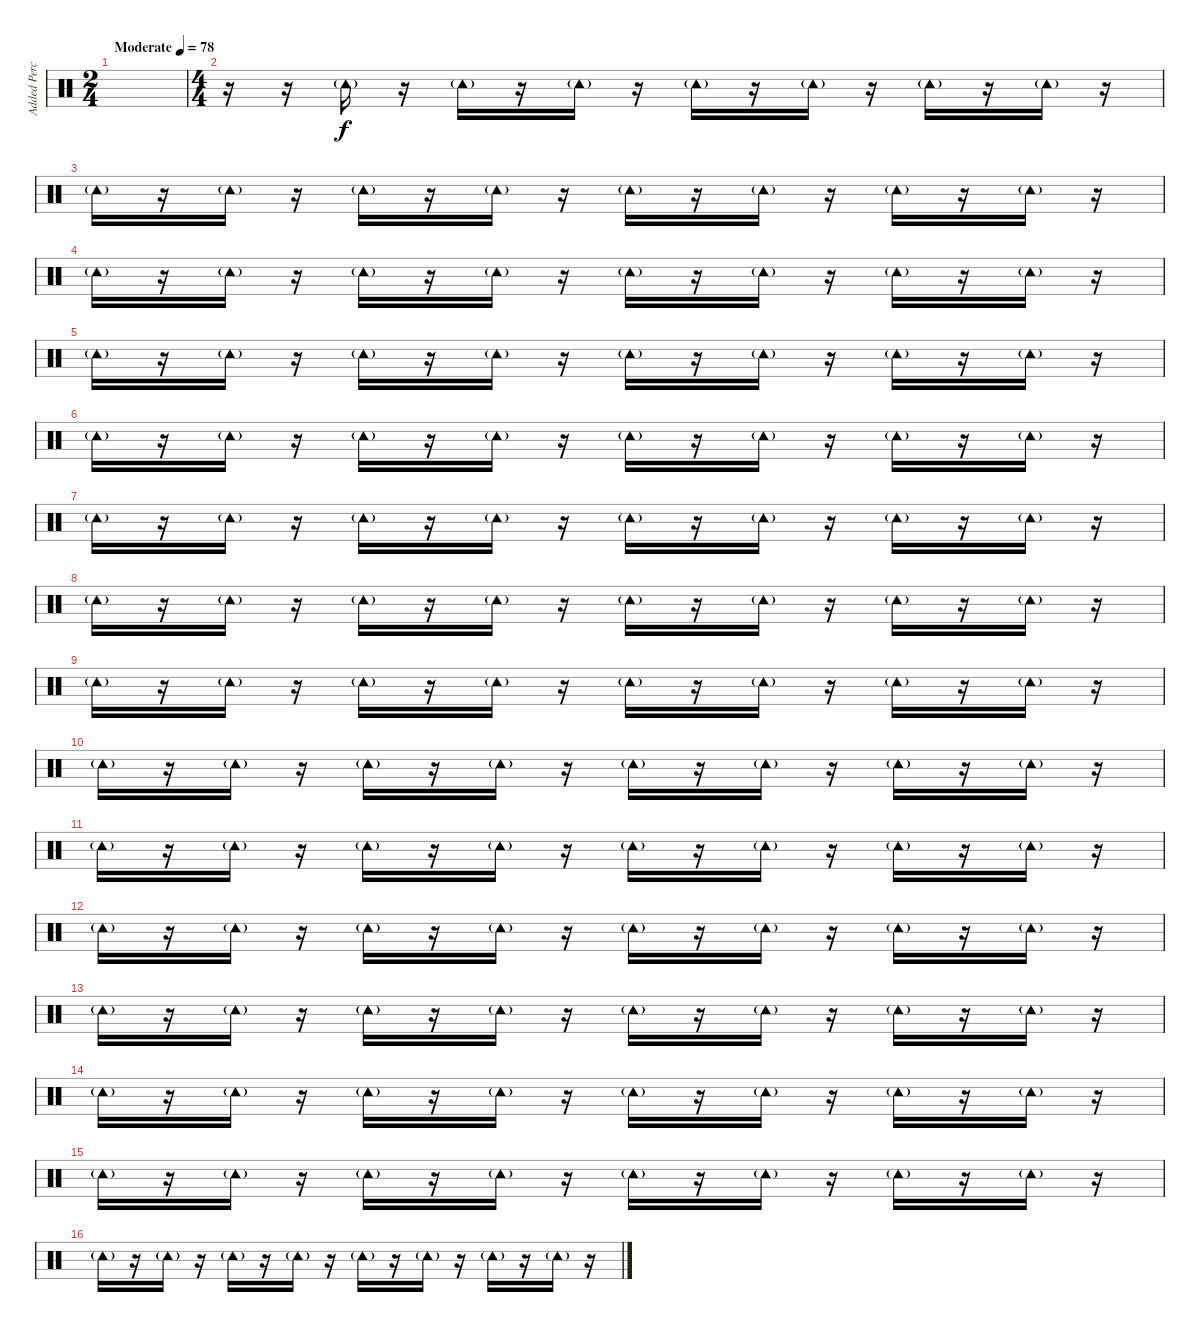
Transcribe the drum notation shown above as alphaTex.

\track ("Added Percussion" "Added Perc") {instrument percussion}
\staff {score}
\articulation defaults
\ts (2 4)
\tempo (78 "Moderate")
\clef neutral
\ks c
|
\ts (4 4)
r.16 r.16 "Tambourine (hit)"{g}.16 r.16 "Tambourine (hit)"{g}.16 r.16 "Tambourine (hit)"{g}.16 r.16 "Tambourine (hit)"{g}.16 r.16 "Tambourine (hit)"{g}.16 r.16 "Tambourine (hit)"{g}.16 r.16 "Tambourine (hit)"{g}.16 r.16 |
"Tambourine (hit)"{g}.16 r.16 "Tambourine (hit)"{g}.16 r.16 "Tambourine (hit)"{g}.16 r.16 "Tambourine (hit)"{g}.16 r.16 "Tambourine (hit)"{g}.16 r.16 "Tambourine (hit)"{g}.16 r.16 "Tambourine (hit)"{g}.16 r.16 "Tambourine (hit)"{g}.16 r.16 |
"Tambourine (hit)"{g}.16 r.16 "Tambourine (hit)"{g}.16 r.16 "Tambourine (hit)"{g}.16 r.16 "Tambourine (hit)"{g}.16 r.16 "Tambourine (hit)"{g}.16 r.16 "Tambourine (hit)"{g}.16 r.16 "Tambourine (hit)"{g}.16 r.16 "Tambourine (hit)"{g}.16 r.16 |
"Tambourine (hit)"{g}.16 r.16 "Tambourine (hit)"{g}.16 r.16 "Tambourine (hit)"{g}.16 r.16 "Tambourine (hit)"{g}.16 r.16 "Tambourine (hit)"{g}.16 r.16 "Tambourine (hit)"{g}.16 r.16 "Tambourine (hit)"{g}.16 r.16 "Tambourine (hit)"{g}.16 r.16 |
"Tambourine (hit)"{g}.16 r.16 "Tambourine (hit)"{g}.16 r.16 "Tambourine (hit)"{g}.16 r.16 "Tambourine (hit)"{g}.16 r.16 "Tambourine (hit)"{g}.16 r.16 "Tambourine (hit)"{g}.16 r.16 "Tambourine (hit)"{g}.16 r.16 "Tambourine (hit)"{g}.16 r.16 |
"Tambourine (hit)"{g}.16 r.16 "Tambourine (hit)"{g}.16 r.16 "Tambourine (hit)"{g}.16 r.16 "Tambourine (hit)"{g}.16 r.16 "Tambourine (hit)"{g}.16 r.16 "Tambourine (hit)"{g}.16 r.16 "Tambourine (hit)"{g}.16 r.16 "Tambourine (hit)"{g}.16 r.16 |
"Tambourine (hit)"{g}.16 r.16 "Tambourine (hit)"{g}.16 r.16 "Tambourine (hit)"{g}.16 r.16 "Tambourine (hit)"{g}.16 r.16 "Tambourine (hit)"{g}.16 r.16 "Tambourine (hit)"{g}.16 r.16 "Tambourine (hit)"{g}.16 r.16 "Tambourine (hit)"{g}.16 r.16 |
"Tambourine (hit)"{g}.16 r.16 "Tambourine (hit)"{g}.16 r.16 "Tambourine (hit)"{g}.16 r.16 "Tambourine (hit)"{g}.16 r.16 "Tambourine (hit)"{g}.16 r.16 "Tambourine (hit)"{g}.16 r.16 "Tambourine (hit)"{g}.16 r.16 "Tambourine (hit)"{g}.16 r.16 |
"Tambourine (hit)"{g}.16 r.16 "Tambourine (hit)"{g}.16 r.16 "Tambourine (hit)"{g}.16 r.16 "Tambourine (hit)"{g}.16 r.16 "Tambourine (hit)"{g}.16 r.16 "Tambourine (hit)"{g}.16 r.16 "Tambourine (hit)"{g}.16 r.16 "Tambourine (hit)"{g}.16 r.16 |
"Tambourine (hit)"{g}.16 r.16 "Tambourine (hit)"{g}.16 r.16 "Tambourine (hit)"{g}.16 r.16 "Tambourine (hit)"{g}.16 r.16 "Tambourine (hit)"{g}.16 r.16 "Tambourine (hit)"{g}.16 r.16 "Tambourine (hit)"{g}.16 r.16 "Tambourine (hit)"{g}.16 r.16 |
"Tambourine (hit)"{g}.16 r.16 "Tambourine (hit)"{g}.16 r.16 "Tambourine (hit)"{g}.16 r.16 "Tambourine (hit)"{g}.16 r.16 "Tambourine (hit)"{g}.16 r.16 "Tambourine (hit)"{g}.16 r.16 "Tambourine (hit)"{g}.16 r.16 "Tambourine (hit)"{g}.16 r.16 |
"Tambourine (hit)"{g}.16 r.16 "Tambourine (hit)"{g}.16 r.16 "Tambourine (hit)"{g}.16 r.16 "Tambourine (hit)"{g}.16 r.16 "Tambourine (hit)"{g}.16 r.16 "Tambourine (hit)"{g}.16 r.16 "Tambourine (hit)"{g}.16 r.16 "Tambourine (hit)"{g}.16 r.16 |
"Tambourine (hit)"{g}.16 r.16 "Tambourine (hit)"{g}.16 r.16 "Tambourine (hit)"{g}.16 r.16 "Tambourine (hit)"{g}.16 r.16 "Tambourine (hit)"{g}.16 r.16 "Tambourine (hit)"{g}.16 r.16 "Tambourine (hit)"{g}.16 r.16 "Tambourine (hit)"{g}.16 r.16 |
"Tambourine (hit)"{g}.16 r.16 "Tambourine (hit)"{g}.16 r.16 "Tambourine (hit)"{g}.16 r.16 "Tambourine (hit)"{g}.16 r.16 "Tambourine (hit)"{g}.16 r.16 "Tambourine (hit)"{g}.16 r.16 "Tambourine (hit)"{g}.16 r.16 "Tambourine (hit)"{g}.16 r.16 |
"Tambourine (hit)"{g}.16 r.16 "Tambourine (hit)"{g}.16 r.16 "Tambourine (hit)"{g}.16 r.16 "Tambourine (hit)"{g}.16 r.16 "Tambourine (hit)"{g}.16 r.16 "Tambourine (hit)"{g}.16 r.16 "Tambourine (hit)"{g}.16 r.16 "Tambourine (hit)"{g}.16 r.16
